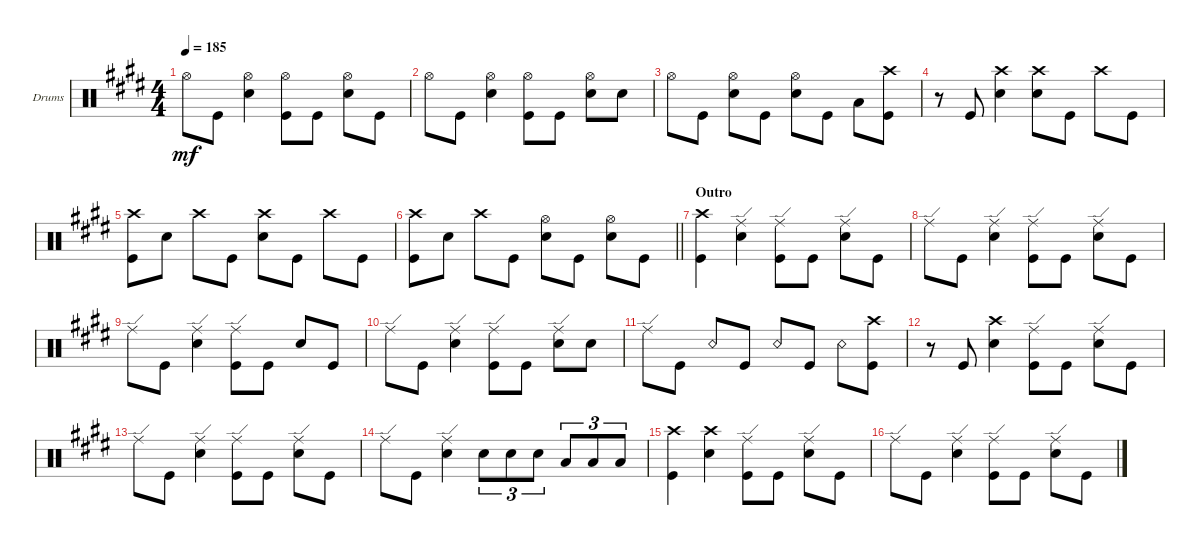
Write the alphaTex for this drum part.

\defaultSystemsLayout 4
\bracketExtendMode groupsimilarinstruments
\firstSystemTrackNameOrientation horizontal
\otherSystemsTrackNameOrientation horizontal
\track ("Drums" "Drums") {instrument percussion}
\staff {score}
\articulation defaults
\ts (4 4)
\tempo 185
\clef neutral
\ks e "Hi-Hat (open)".8{dy mf} "Kick (hit)".8
("Snare (hit) 2" "Hi-Hat (open)").4 ("Kick (hit)" "Hi-Hat (open)").8 "Kick (hit)".8 ("Snare (hit) 2" "Hi-Hat (open)").8 "Kick (hit)".8 |
"Hi-Hat (open)".8 "Kick (hit)".8 ("Snare (hit) 2" "Hi-Hat (open)").4 ("Kick (hit)" "Hi-Hat (open)").8 "Kick (hit)".8 ("Snare (hit) 2" "Hi-Hat (open)").8 "Snare (hit) 2".8 |
"Hi-Hat (open)".8 "Kick (hit)".8 ("Snare (hit) 2" "Hi-Hat (open)").8 "Kick (hit)".8 ("Snare (hit) 2" "Hi-Hat (open)").8 "Kick (hit)".8 "Low Tom (hit)".8 ("Kick (hit)" "Crash high (hit)").8 |
r.8 "Kick (hit)".8 ("Snare (hit) 2" "Crash high (hit)").4 ("Snare (hit) 2" "Crash high (hit)").8 "Kick (hit)".8 "Crash high (hit)".8 "Kick (hit)".8 |
("Kick (hit)" "Crash high (hit)").8 "Snare (hit) 2".8 "Crash high (hit)".8 "Kick (hit)".8 ("Crash high (hit)" "Snare (hit) 2").8 "Kick (hit)".8 "Crash high (hit)".8 "Kick (hit)".8 |
\barLineRight lightlight
("Kick (hit)" "Crash high (hit)").8 "Snare (hit) 2".8 "Crash high (hit)".8 "Kick (hit)".8 ("Snare (hit) 2" "Hi-Hat (open)").8 "Kick (hit)".8 ("Snare (hit) 2" "Hi-Hat (open)").8 "Kick (hit)".8 |
\section ("" "Outro")
("Kick (hit)" "Crash high (hit)").4 ("Snare (hit) 2" "Ride (edge)").4 ("Kick (hit)" "Ride (edge)").8 "Kick (hit)".8 ("Snare (hit) 2" "Ride (edge)").8 "Kick (hit)".8 |
"Ride (edge)".8 "Kick (hit)".8 ("Snare (hit) 2" "Ride (edge)").4 ("Kick (hit)" "Ride (edge)").8 "Kick (hit)".8 ("Snare (hit) 2" "Ride (edge)").8 "Kick (hit)".8 |
"Ride (edge)".8 "Kick (hit)".8 ("Snare (hit) 2" "Ride (edge)").4 ("Kick (hit)" "Ride (edge)").8 "Kick (hit)".8 "Snare (hit) 2".8 "Kick (hit)".8 |
"Ride (edge)".8 "Kick (hit)".8 ("Snare (hit) 2" "Ride (edge)").4 ("Kick (hit)" "Ride (edge)").8 "Kick (hit)".8 ("Snare (hit) 2" "Ride (edge)").8 "Snare (hit) 2".8 |
"Ride (edge)".8 "Kick (hit)".8 "Snare (rim shot)".8 "Kick (hit)".8 "Snare (rim shot)".8 "Kick (hit)".8 "Snare (rim shot)".8 ("Kick (hit)" "Crash high (hit)").8 |
r.8 "Kick (hit)".8 ("Snare (hit) 2" "Crash high (hit)").4 ("Kick (hit)" "Ride (edge)").8 "Kick (hit)".8 ("Snare (hit) 2" "Ride (edge)").8 "Kick (hit)".8 |
"Ride (edge)".8 "Kick (hit)".8 ("Snare (hit) 2" "Ride (edge)").4 ("Kick (hit)" "Ride (edge)").8 "Kick (hit)".8 ("Snare (hit) 2" "Ride (edge)").8 "Kick (hit)".8 |
"Ride (edge)".8 "Kick (hit)".8 ("Snare (hit) 2" "Ride (edge)").4 "Snare (hit) 2".8{tu (3 2)} "Snare (hit) 2".8{tu (3 2)} "Snare (hit) 2".8{tu (3 2)} "Low Tom (hit)".8{tu (3 2)} "Low Tom (hit)".8{tu (3 2)} "Low Tom (hit)".8{tu (3 2)} |
("Kick (hit)" "Crash high (hit)").4 ("Snare (hit) 2" "Crash high (hit)").4 ("Kick (hit)" "Ride (edge)").8 "Kick (hit)".8 ("Snare (hit) 2" "Ride (edge)").8 "Kick (hit)".8 |
"Ride (edge)".8 "Kick (hit)".8 ("Snare (hit) 2" "Ride (edge)").4 ("Kick (hit)" "Ride (edge)").8 "Kick (hit)".8 ("Snare (hit) 2" "Ride (edge)").8 "Kick (hit)".8
